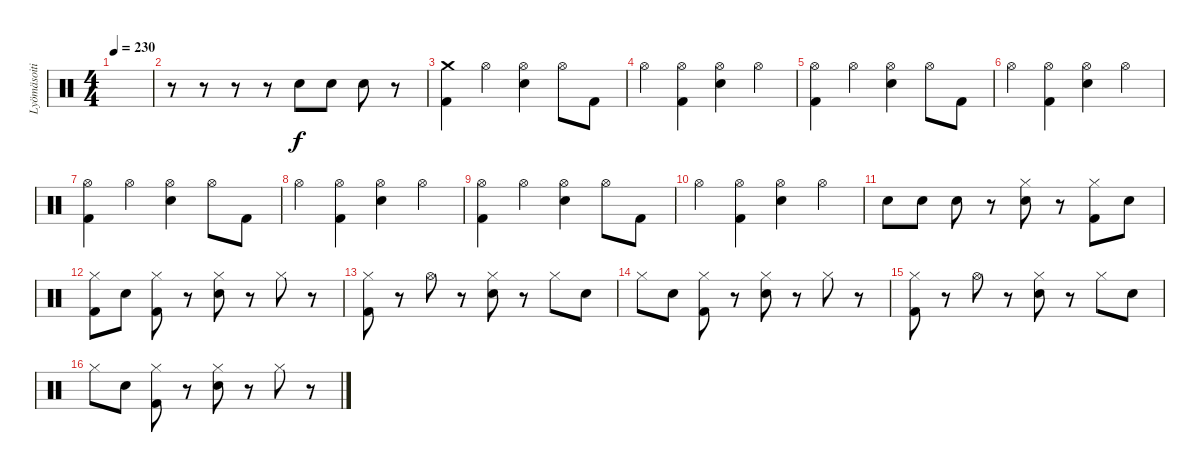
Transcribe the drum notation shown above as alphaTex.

\track ("Lyömäsoitin" "Lyömäsoiti") {instrument percussion}
\staff {score}
\articulation defaults
\ts (4 4)
\tempo 230
\clef neutral
\ks c
|
r.8 r.8 r.8 r.8 "Electric Snare (hit)".8 "Electric Snare (hit)".8 "Electric Snare (hit)".8 r.8 |
("Crash medium (hit)" "Kick (hit) 2").4 "Hi-Hat (open)".4 ("Hi-Hat (open)" "Electric Snare (hit)").4 "Hi-Hat (open)".8 "Kick (hit) 2".8 |
"Hi-Hat (open)".4 ("Hi-Hat (open)" "Kick (hit) 2").4 ("Hi-Hat (open)" "Electric Snare (hit)").4 "Hi-Hat (open)".4 |
("Hi-Hat (open)" "Kick (hit) 2").4 "Hi-Hat (open)".4 ("Hi-Hat (open)" "Electric Snare (hit)").4 "Hi-Hat (open)".8 "Kick (hit) 2".8 |
"Hi-Hat (open)".4 ("Hi-Hat (open)" "Kick (hit) 2").4 ("Hi-Hat (open)" "Electric Snare (hit)").4 "Hi-Hat (open)".4 |
("Hi-Hat (open)" "Kick (hit) 2").4 "Hi-Hat (open)".4 ("Hi-Hat (open)" "Electric Snare (hit)").4 "Hi-Hat (open)".8 "Kick (hit) 2".8 |
"Hi-Hat (open)".4 ("Hi-Hat (open)" "Kick (hit) 2").4 ("Hi-Hat (open)" "Electric Snare (hit)").4 "Hi-Hat (open)".4 |
("Hi-Hat (open)" "Kick (hit) 2").4 "Hi-Hat (open)".4 ("Hi-Hat (open)" "Electric Snare (hit)").4 "Hi-Hat (open)".8 "Kick (hit) 2".8 |
"Hi-Hat (open)".4 ("Hi-Hat (open)" "Kick (hit) 2").4 ("Hi-Hat (open)" "Electric Snare (hit)").4 "Hi-Hat (open)".4 |
"Electric Snare (hit)".8 "Electric Snare (hit)".8 "Electric Snare (hit)".8 r.8 ("Hi-Hat (closed)" "Electric Snare (hit)").8 r.8 ("Hi-Hat (closed)" "Kick (hit) 2").8 "Electric Snare (hit)".8 |
("Hi-Hat (closed)" "Kick (hit) 2").8 "Electric Snare (hit)".8 ("Hi-Hat (closed)" "Kick (hit) 2").8 r.8 ("Hi-Hat (closed)" "Electric Snare (hit)").8 r.8 "Hi-Hat (closed)".8 r.8 |
("Hi-Hat (closed)" "Kick (hit) 2").8 r.8 "Hi-Hat (open)".8 r.8 ("Hi-Hat (closed)" "Electric Snare (hit)").8 r.8 "Hi-Hat (closed)".8 "Electric Snare (hit)".8 |
"Hi-Hat (closed)".8 "Electric Snare (hit)".8 ("Hi-Hat (closed)" "Kick (hit) 2").8 r.8 ("Hi-Hat (closed)" "Electric Snare (hit)").8 r.8 "Hi-Hat (closed)".8 r.8 |
("Hi-Hat (closed)" "Kick (hit) 2").8 r.8 "Hi-Hat (open)".8 r.8 ("Hi-Hat (closed)" "Electric Snare (hit)").8 r.8 "Hi-Hat (closed)".8 "Electric Snare (hit)".8 |
"Hi-Hat (closed)".8 "Electric Snare (hit)".8 ("Hi-Hat (closed)" "Kick (hit) 2").8 r.8 ("Hi-Hat (closed)" "Electric Snare (hit)").8 r.8 "Hi-Hat (closed)".8 r.8
